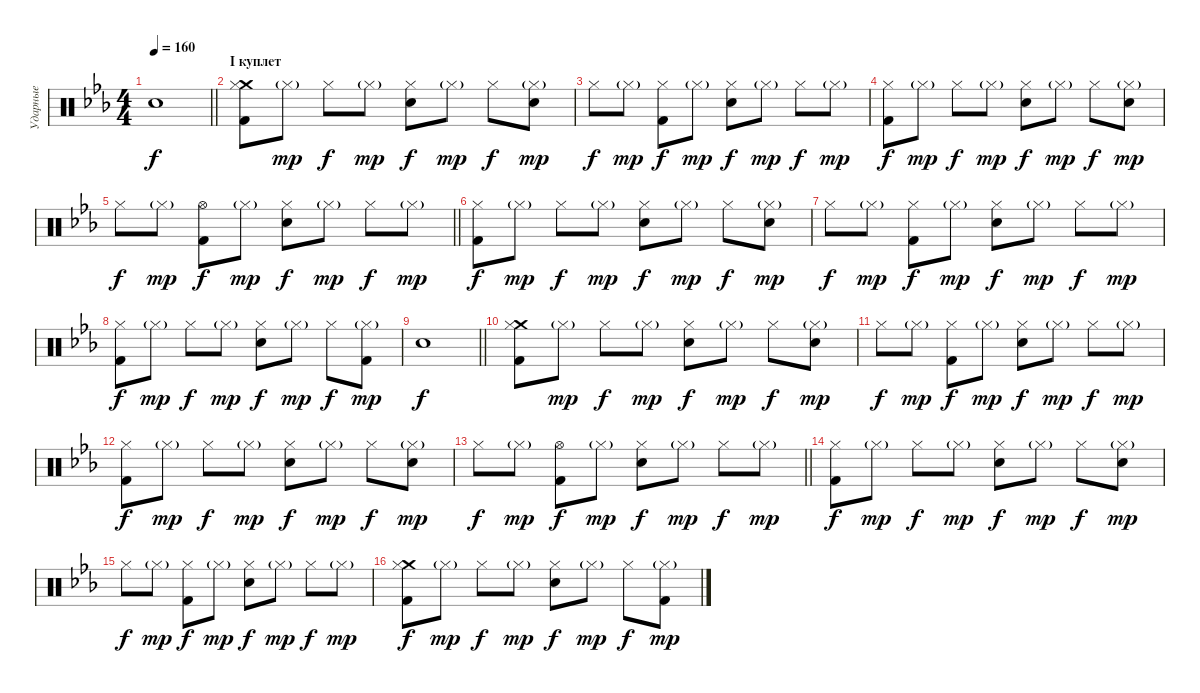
\track ("Ударные" "Ударные") {instrument percussion}
\staff {score}
\articulation defaults
\ts (4 4)
\tempo 160
\clef neutral
\barLineRight lightlight
\ks cminor "Electric Snare (hit)".1{dy f}
|
\section ("" "I куплет")
("Crash medium (hit)" "Kick (hit) 2" "Hi-Hat (closed)").8 "Hi-Hat (closed)"{g}.8{dy mp} "Hi-Hat (closed)".8{dy f} "Hi-Hat (closed)"{g}.8{dy mp} ("Electric Snare (hit)" "Hi-Hat (closed)").8{dy f} "Hi-Hat (closed)"{g}.8{dy mp} "Hi-Hat (closed)".8{dy f} ("Electric Snare (hit)" "Hi-Hat (closed)"{g}).8{dy mp} |
"Hi-Hat (closed)".8{dy f} "Hi-Hat (closed)"{g}.8{dy mp} ("Kick (hit) 2" "Hi-Hat (closed)").8{dy f} "Hi-Hat (closed)"{g}.8{dy mp} ("Electric Snare (hit)" "Hi-Hat (closed)").8{dy f} "Hi-Hat (closed)"{g}.8{dy mp} "Hi-Hat (closed)".8{dy f} "Hi-Hat (closed)"{g}.8{dy mp} |
("Kick (hit) 2" "Hi-Hat (closed)").8{dy f} "Hi-Hat (closed)"{g}.8{dy mp} "Hi-Hat (closed)".8{dy f} "Hi-Hat (closed)"{g}.8{dy mp} ("Electric Snare (hit)" "Hi-Hat (closed)").8{dy f} "Hi-Hat (closed)"{g}.8{dy mp} "Hi-Hat (closed)".8{dy f} ("Electric Snare (hit)" "Hi-Hat (closed)"{g}).8{dy mp} |
\barLineRight lightlight "Hi-Hat (closed)".8{dy f} "Hi-Hat (closed)"{g}.8{dy mp}
("Kick (hit) 2" "Hi-Hat (open)").8{dy f} "Hi-Hat (closed)"{g}.8{dy mp} ("Electric Snare (hit)" "Hi-Hat (closed)").8{dy f} "Hi-Hat (closed)"{g}.8{dy mp} "Hi-Hat (closed)".8{dy f} "Hi-Hat (closed)"{g}.8{dy mp} |
("Kick (hit) 2" "Hi-Hat (closed)").8{dy f} "Hi-Hat (closed)"{g}.8{dy mp} "Hi-Hat (closed)".8{dy f} "Hi-Hat (closed)"{g}.8{dy mp} ("Electric Snare (hit)" "Hi-Hat (closed)").8{dy f} "Hi-Hat (closed)"{g}.8{dy mp} "Hi-Hat (closed)".8{dy f} ("Electric Snare (hit)" "Hi-Hat (closed)"{g}).8{dy mp} |
"Hi-Hat (closed)".8{dy f} "Hi-Hat (closed)"{g}.8{dy mp} ("Kick (hit) 2" "Hi-Hat (closed)").8{dy f} "Hi-Hat (closed)"{g}.8{dy mp} ("Electric Snare (hit)" "Hi-Hat (closed)").8{dy f} "Hi-Hat (closed)"{g}.8{dy mp} "Hi-Hat (closed)".8{dy f} "Hi-Hat (closed)"{g}.8{dy mp} |
("Kick (hit) 2" "Hi-Hat (closed)").8{dy f} "Hi-Hat (closed)"{g}.8{dy mp} "Hi-Hat (closed)".8{dy f} "Hi-Hat (closed)"{g}.8{dy mp} ("Electric Snare (hit)" "Hi-Hat (closed)").8{dy f} "Hi-Hat (closed)"{g}.8{dy mp} "Hi-Hat (closed)".8{dy f} ("Kick (hit) 2" "Hi-Hat (closed)"{g}).8{dy mp} |
\barLineRight lightlight "Electric Snare (hit)".1{dy f}
|
("Crash medium (hit)" "Kick (hit) 2" "Hi-Hat (closed)").8 "Hi-Hat (closed)"{g}.8{dy mp} "Hi-Hat (closed)".8{dy f} "Hi-Hat (closed)"{g}.8{dy mp} ("Electric Snare (hit)" "Hi-Hat (closed)").8{dy f} "Hi-Hat (closed)"{g}.8{dy mp} "Hi-Hat (closed)".8{dy f} ("Electric Snare (hit)" "Hi-Hat (closed)"{g}).8{dy mp} |
"Hi-Hat (closed)".8{dy f} "Hi-Hat (closed)"{g}.8{dy mp} ("Kick (hit) 2" "Hi-Hat (closed)").8{dy f} "Hi-Hat (closed)"{g}.8{dy mp} ("Electric Snare (hit)" "Hi-Hat (closed)").8{dy f} "Hi-Hat (closed)"{g}.8{dy mp} "Hi-Hat (closed)".8{dy f} "Hi-Hat (closed)"{g}.8{dy mp} |
("Kick (hit) 2" "Hi-Hat (closed)").8{dy f} "Hi-Hat (closed)"{g}.8{dy mp} "Hi-Hat (closed)".8{dy f} "Hi-Hat (closed)"{g}.8{dy mp} ("Electric Snare (hit)" "Hi-Hat (closed)").8{dy f} "Hi-Hat (closed)"{g}.8{dy mp} "Hi-Hat (closed)".8{dy f} ("Electric Snare (hit)" "Hi-Hat (closed)"{g}).8{dy mp} |
\barLineRight lightlight "Hi-Hat (closed)".8{dy f} "Hi-Hat (closed)"{g}.8{dy mp}
("Kick (hit) 2" "Hi-Hat (open)").8{dy f} "Hi-Hat (closed)"{g}.8{dy mp} ("Electric Snare (hit)" "Hi-Hat (closed)").8{dy f} "Hi-Hat (closed)"{g}.8{dy mp} "Hi-Hat (closed)".8{dy f} "Hi-Hat (closed)"{g}.8{dy mp} |
("Kick (hit) 2" "Hi-Hat (closed)").8{dy f} "Hi-Hat (closed)"{g}.8{dy mp} "Hi-Hat (closed)".8{dy f} "Hi-Hat (closed)"{g}.8{dy mp} ("Electric Snare (hit)" "Hi-Hat (closed)").8{dy f} "Hi-Hat (closed)"{g}.8{dy mp} "Hi-Hat (closed)".8{dy f} ("Electric Snare (hit)" "Hi-Hat (closed)"{g}).8{dy mp} |
"Hi-Hat (closed)".8{dy f} "Hi-Hat (closed)"{g}.8{dy mp} ("Kick (hit) 2" "Hi-Hat (closed)").8{dy f} "Hi-Hat (closed)"{g}.8{dy mp} ("Electric Snare (hit)" "Hi-Hat (closed)").8{dy f} "Hi-Hat (closed)"{g}.8{dy mp} "Hi-Hat (closed)".8{dy f} "Hi-Hat (closed)"{g}.8{dy mp} |
("Crash medium (hit)" "Kick (hit) 2" "Hi-Hat (closed)").8{dy f} "Hi-Hat (closed)"{g}.8{dy mp} "Hi-Hat (closed)".8{dy f} "Hi-Hat (closed)"{g}.8{dy mp} ("Electric Snare (hit)" "Hi-Hat (closed)").8{dy f} "Hi-Hat (closed)"{g}.8{dy mp} "Hi-Hat (closed)".8{dy f} ("Kick (hit) 2" "Hi-Hat (closed)"{g}).8{dy mp}
